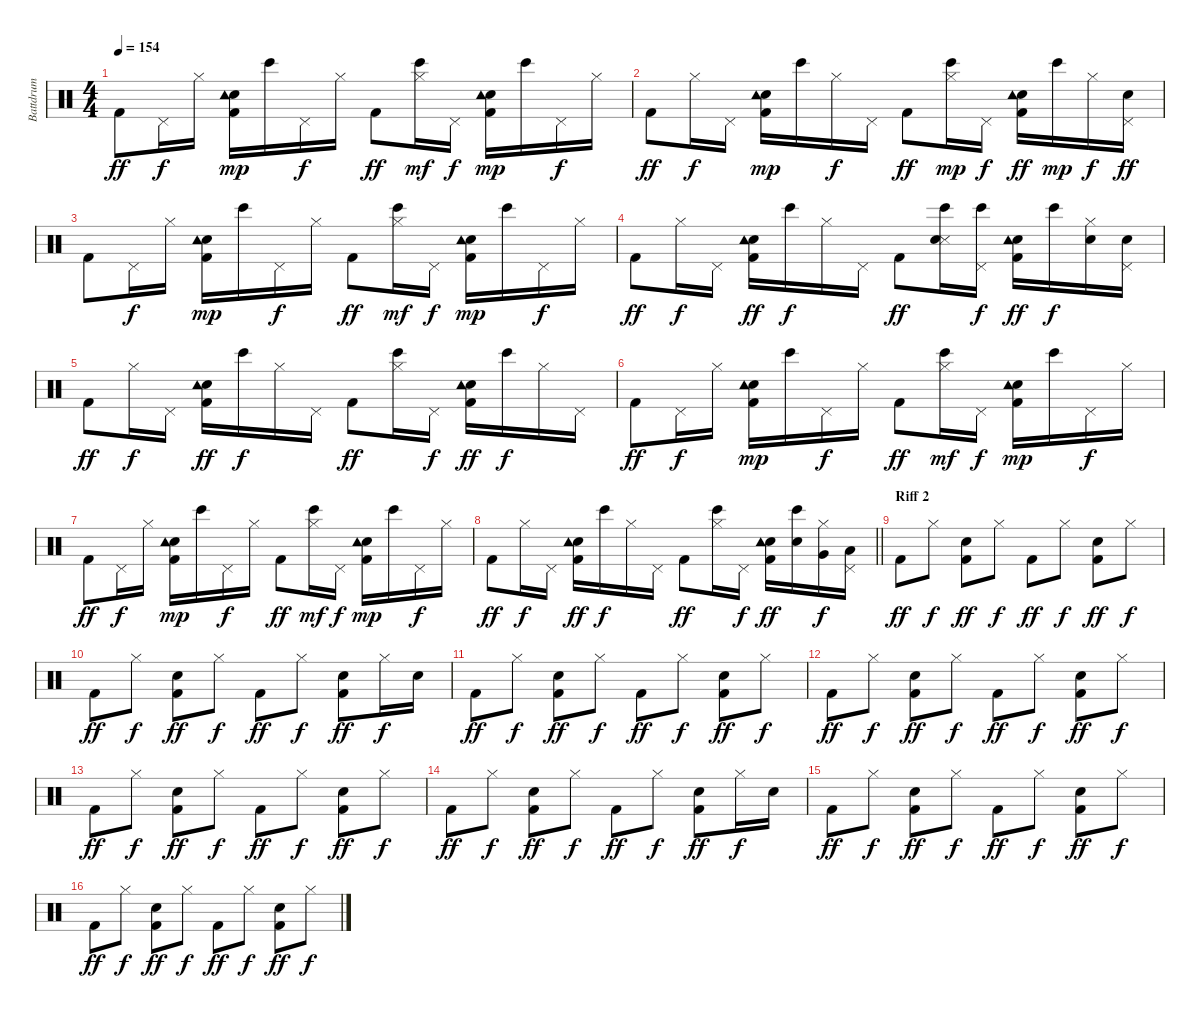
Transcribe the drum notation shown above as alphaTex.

\track ("Battdrum" "Battdrum") {instrument percussion}
\staff {score}
\articulation defaults
\ts (4 4)
\tempo 154
\clef neutral
\ks c "Kick (hit) 2".8{dy ff} "Pedal Hi-Hat (hit)".16{dy f} "Hi-Hat (closed)".16
("Kick (hit) 2" "Electric Snare (hit)" "Tambourine (hit)").16{dy mp} "Bongo High (hit)".16 "Pedal Hi-Hat (hit)".16{dy f} "Hi-Hat (closed)".16 "Kick (hit) 2".8{dy ff} ("Bongo High (hit)" "Hi-Hat (closed)").16{dy mf} "Pedal Hi-Hat (hit)".16{dy f} ("Kick (hit) 2" "Electric Snare (hit)" "Tambourine (hit)").16{dy mp} "Bongo High (hit)".16 "Pedal Hi-Hat (hit)".16{dy f} "Hi-Hat (closed)".16 |
"Kick (hit) 2".8{dy ff} "Hi-Hat (closed)".16{dy f} "Pedal Hi-Hat (hit)".16 ("Kick (hit) 2" "Electric Snare (hit)" "Tambourine (hit)").16{dy mp} "Bongo High (hit)".16 "Hi-Hat (closed)".16{dy f} "Pedal Hi-Hat (hit)".16 "Kick (hit) 2".8{dy ff} ("Bongo High (hit)" "Hi-Hat (closed)").16{dy mp} "Pedal Hi-Hat (hit)".16{dy f} ("Kick (hit) 2" "Electric Snare (hit)" "Tambourine (hit)").16{dy ff} "Bongo High (hit)".16{dy mp} "Hi-Hat (closed)".16{dy f} ("Electric Snare (hit)" "Pedal Hi-Hat (hit)").16{dy ff} |
"Kick (hit) 2".8 "Pedal Hi-Hat (hit)".16{dy f} "Hi-Hat (closed)".16 ("Kick (hit) 2" "Electric Snare (hit)" "Tambourine (hit)").16{dy mp} "Bongo High (hit)".16 "Pedal Hi-Hat (hit)".16{dy f} "Hi-Hat (closed)".16 "Kick (hit) 2".8{dy ff} ("Bongo High (hit)" "Hi-Hat (closed)").16{dy mf} "Pedal Hi-Hat (hit)".16{dy f} ("Kick (hit) 2" "Electric Snare (hit)" "Tambourine (hit)").16{dy mp} "Bongo High (hit)".16 "Pedal Hi-Hat (hit)".16{dy f} "Hi-Hat (closed)".16 |
"Kick (hit) 2".8{dy ff} "Hi-Hat (closed)".16{dy f} "Pedal Hi-Hat (hit)".16 ("Kick (hit) 2" "Electric Snare (hit)" "Tambourine (hit)").16{dy ff} "Bongo High (hit)".16{dy f} "Hi-Hat (closed)".16 "Pedal Hi-Hat (hit)".16 "Kick (hit) 2".8{dy ff} ("Snare (side stick) 3" "Electric Snare (hit)" "Bongo High (hit)").16 ("Bongo High (hit)" "Pedal Hi-Hat (hit)").16{dy f} ("Kick (hit) 2" "Electric Snare (hit)" "Tambourine (hit)").16{dy ff} "Bongo High (hit)".16{dy f} ("Electric Snare (hit)" "Hi-Hat (closed)").16 ("Electric Snare (hit)" "Pedal Hi-Hat (hit)").16 |
"Kick (hit) 2".8{dy ff} "Hi-Hat (closed)".16{dy f} "Pedal Hi-Hat (hit)".16 ("Kick (hit) 2" "Electric Snare (hit)" "Tambourine (hit)").16{dy ff} "Bongo High (hit)".16{dy f} "Hi-Hat (closed)".16 "Pedal Hi-Hat (hit)".16 "Kick (hit) 2".8{dy ff} ("Bongo High (hit)" "Hi-Hat (closed)").16 "Pedal Hi-Hat (hit)".16{dy f} ("Kick (hit) 2" "Electric Snare (hit)" "Tambourine (hit)").16{dy ff} "Bongo High (hit)".16{dy f} "Hi-Hat (closed)".16 "Pedal Hi-Hat (hit)".16 |
"Kick (hit) 2".8{dy ff} "Pedal Hi-Hat (hit)".16{dy f} "Hi-Hat (closed)".16 ("Kick (hit) 2" "Electric Snare (hit)" "Tambourine (hit)").16{dy mp} "Bongo High (hit)".16 "Pedal Hi-Hat (hit)".16{dy f} "Hi-Hat (closed)".16 "Kick (hit) 2".8{dy ff} ("Bongo High (hit)" "Hi-Hat (closed)").16{dy mf} "Pedal Hi-Hat (hit)".16{dy f} ("Kick (hit) 2" "Electric Snare (hit)" "Tambourine (hit)").16{dy mp} "Bongo High (hit)".16 "Pedal Hi-Hat (hit)".16{dy f} "Hi-Hat (closed)".16 |
"Kick (hit) 2".8{dy ff} "Pedal Hi-Hat (hit)".16{dy f} "Hi-Hat (closed)".16 ("Kick (hit) 2" "Electric Snare (hit)" "Tambourine (hit)").16{dy mp} "Bongo High (hit)".16 "Pedal Hi-Hat (hit)".16{dy f} "Hi-Hat (closed)".16 "Kick (hit) 2".8{dy ff} ("Bongo High (hit)" "Hi-Hat (closed)").16{dy mf} "Pedal Hi-Hat (hit)".16{dy f} ("Kick (hit) 2" "Electric Snare (hit)" "Tambourine (hit)").16{dy mp} "Bongo High (hit)".16 "Pedal Hi-Hat (hit)".16{dy f} "Hi-Hat (closed)".16 |
\barLineRight lightlight "Kick (hit) 2".8{dy ff} "Hi-Hat (closed)".16{dy f} "Pedal Hi-Hat (hit)".16
("Kick (hit) 2" "Electric Snare (hit)" "Tambourine (hit)").16{dy ff} "Bongo High (hit)".16{dy f} "Hi-Hat (closed)".16 "Pedal Hi-Hat (hit)".16 "Kick (hit) 2".8{dy ff} ("Bongo High (hit)" "Hi-Hat (closed)").16 "Pedal Hi-Hat (hit)".16{dy f} ("Kick (hit) 2" "Electric Snare (hit)" "Tambourine (hit)").16{dy ff} ("Electric Snare (hit)" "Bongo High (hit)").16 ("Hi-Hat (closed)" "Very Low Tom (hit)").16{dy f} ("Pedal Hi-Hat (hit)" "Low Tom (hit)").16 |
\section ("" "Riff 2")
"Kick (hit) 2".8{dy ff} "Hi-Hat (closed)".8{dy f} ("Kick (hit) 2" "Electric Snare (hit)").8{dy ff} "Hi-Hat (closed)".8{dy f} "Kick (hit) 2".8{dy ff} "Hi-Hat (closed)".8{dy f} ("Kick (hit) 2" "Electric Snare (hit)").8{dy ff} "Hi-Hat (closed)".8{dy f} |
"Kick (hit) 2".8{dy ff} "Hi-Hat (closed)".8{dy f} ("Kick (hit) 2" "Electric Snare (hit)").8{dy ff} "Hi-Hat (closed)".8{dy f} "Kick (hit) 2".8{dy ff} "Hi-Hat (closed)".8{dy f} ("Kick (hit) 2" "Electric Snare (hit)").8{dy ff} "Hi-Hat (closed)".16{dy f} "Electric Snare (hit)".16 |
"Kick (hit) 2".8{dy ff} "Hi-Hat (closed)".8{dy f} ("Kick (hit) 2" "Electric Snare (hit)").8{dy ff} "Hi-Hat (closed)".8{dy f} "Kick (hit) 2".8{dy ff} "Hi-Hat (closed)".8{dy f} ("Kick (hit) 2" "Electric Snare (hit)").8{dy ff} "Hi-Hat (closed)".8{dy f} |
"Kick (hit) 2".8{dy ff} "Hi-Hat (closed)".8{dy f} ("Kick (hit) 2" "Electric Snare (hit)").8{dy ff} "Hi-Hat (closed)".8{dy f} "Kick (hit) 2".8{dy ff} "Hi-Hat (closed)".8{dy f} ("Kick (hit) 2" "Electric Snare (hit)").8{dy ff} "Hi-Hat (closed)".8{dy f} |
"Kick (hit) 2".8{dy ff} "Hi-Hat (closed)".8{dy f} ("Kick (hit) 2" "Electric Snare (hit)").8{dy ff} "Hi-Hat (closed)".8{dy f} "Kick (hit) 2".8{dy ff} "Hi-Hat (closed)".8{dy f} ("Kick (hit) 2" "Electric Snare (hit)").8{dy ff} "Hi-Hat (closed)".8{dy f} |
"Kick (hit) 2".8{dy ff} "Hi-Hat (closed)".8{dy f} ("Kick (hit) 2" "Electric Snare (hit)").8{dy ff} "Hi-Hat (closed)".8{dy f} "Kick (hit) 2".8{dy ff} "Hi-Hat (closed)".8{dy f} ("Kick (hit) 2" "Electric Snare (hit)").8{dy ff} "Hi-Hat (closed)".16{dy f} "Electric Snare (hit)".16 |
"Kick (hit) 2".8{dy ff} "Hi-Hat (closed)".8{dy f} ("Kick (hit) 2" "Electric Snare (hit)").8{dy ff} "Hi-Hat (closed)".8{dy f} "Kick (hit) 2".8{dy ff} "Hi-Hat (closed)".8{dy f} ("Kick (hit) 2" "Electric Snare (hit)").8{dy ff} "Hi-Hat (closed)".8{dy f} |
"Kick (hit) 2".8{dy ff} "Hi-Hat (closed)".8{dy f} ("Kick (hit) 2" "Electric Snare (hit)").8{dy ff} "Hi-Hat (closed)".8{dy f} "Kick (hit) 2".8{dy ff} "Hi-Hat (closed)".8{dy f} ("Kick (hit) 2" "Electric Snare (hit)").8{dy ff} "Hi-Hat (closed)".8{dy f}
